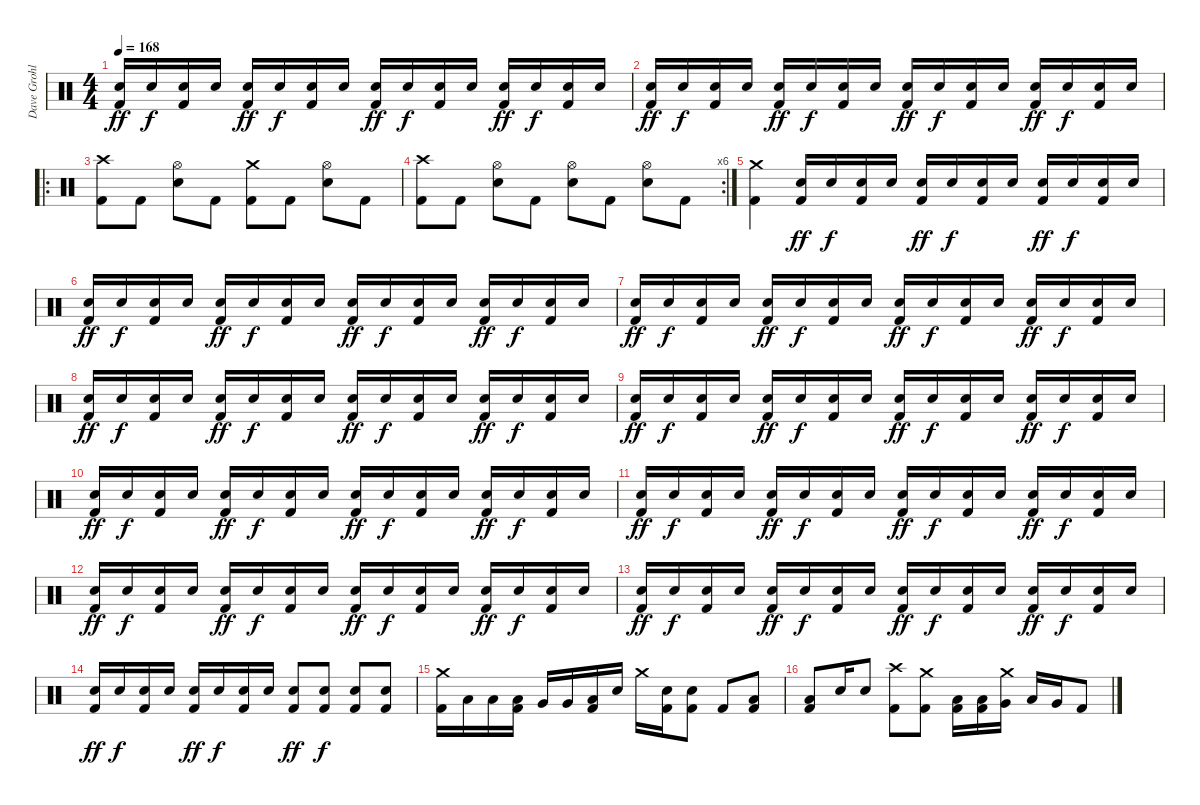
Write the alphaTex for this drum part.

\track ("Dave Grohl - Drums" "Dave Grohl") {instrument percussion}
\staff {score}
\articulation defaults
\ts (4 4)
\tempo 168
\clef neutral
\ks c
("Electric Snare (hit)" "Kick (hit) 2").16{dy ff volume 12} "Electric Snare (hit)".16{dy f} ("Electric Snare (hit)" "Kick (hit) 2").16 "Electric Snare (hit)".16 ("Electric Snare (hit)" "Kick (hit) 2").16{dy ff} "Electric Snare (hit)".16{dy f} ("Electric Snare (hit)" "Kick (hit) 2").16 "Electric Snare (hit)".16 ("Electric Snare (hit)" "Kick (hit) 2").16{dy ff} "Electric Snare (hit)".16{dy f} ("Electric Snare (hit)" "Kick (hit) 2").16 "Electric Snare (hit)".16 ("Electric Snare (hit)" "Kick (hit) 2").16{dy ff} "Electric Snare (hit)".16{dy f} ("Electric Snare (hit)" "Kick (hit) 2").16 "Electric Snare (hit)".16 |
("Electric Snare (hit)" "Kick (hit) 2").16{dy ff volume 12} "Electric Snare (hit)".16{dy f} ("Electric Snare (hit)" "Kick (hit) 2").16 "Electric Snare (hit)".16 ("Electric Snare (hit)" "Kick (hit) 2").16{dy ff} "Electric Snare (hit)".16{dy f} ("Electric Snare (hit)" "Kick (hit) 2").16 "Electric Snare (hit)".16 ("Electric Snare (hit)" "Kick (hit) 2").16{dy ff} "Electric Snare (hit)".16{dy f} ("Electric Snare (hit)" "Kick (hit) 2").16 "Electric Snare (hit)".16 ("Electric Snare (hit)" "Kick (hit) 2").16{dy ff} "Electric Snare (hit)".16{dy f} ("Electric Snare (hit)" "Kick (hit) 2").16 "Electric Snare (hit)".16 |
\ro
("Crash high (hit)" "Kick (hit) 2").8{volume 13} "Kick (hit) 2".8 ("Hi-Hat (open)" "Electric Snare (hit)").8 "Kick (hit) 2".8 ("Crash medium (hit)" "Kick (hit) 2").8 "Kick (hit) 2".8 ("Hi-Hat (open)" "Electric Snare (hit)").8 "Kick (hit) 2".8 |
\rc 6
("Crash high (hit)" "Kick (hit) 2").8{volume 13} "Kick (hit) 2".8 ("Hi-Hat (open)" "Electric Snare (hit)").8 "Kick (hit) 2".8 ("Hi-Hat (open)" "Electric Snare (hit)").8 "Kick (hit) 2".8 ("Hi-Hat (open)" "Electric Snare (hit)").8 "Kick (hit) 2".8 |
("Crash medium (hit)" "Kick (hit) 2").4{volume 12} ("Electric Snare (hit)" "Kick (hit) 2").16{dy ff volume 12} "Electric Snare (hit)".16{dy f} ("Electric Snare (hit)" "Kick (hit) 2").16 "Electric Snare (hit)".16 ("Electric Snare (hit)" "Kick (hit) 2").16{dy ff} "Electric Snare (hit)".16{dy f} ("Electric Snare (hit)" "Kick (hit) 2").16 "Electric Snare (hit)".16 ("Electric Snare (hit)" "Kick (hit) 2").16{dy ff} "Electric Snare (hit)".16{dy f} ("Electric Snare (hit)" "Kick (hit) 2").16 "Electric Snare (hit)".16 |
("Electric Snare (hit)" "Kick (hit) 2").16{dy ff volume 12} "Electric Snare (hit)".16{dy f} ("Electric Snare (hit)" "Kick (hit) 2").16 "Electric Snare (hit)".16 ("Electric Snare (hit)" "Kick (hit) 2").16{dy ff} "Electric Snare (hit)".16{dy f} ("Electric Snare (hit)" "Kick (hit) 2").16 "Electric Snare (hit)".16 ("Electric Snare (hit)" "Kick (hit) 2").16{dy ff} "Electric Snare (hit)".16{dy f} ("Electric Snare (hit)" "Kick (hit) 2").16 "Electric Snare (hit)".16 ("Electric Snare (hit)" "Kick (hit) 2").16{dy ff} "Electric Snare (hit)".16{dy f} ("Electric Snare (hit)" "Kick (hit) 2").16 "Electric Snare (hit)".16 |
("Electric Snare (hit)" "Kick (hit) 2").16{dy ff volume 12} "Electric Snare (hit)".16{dy f} ("Electric Snare (hit)" "Kick (hit) 2").16 "Electric Snare (hit)".16 ("Electric Snare (hit)" "Kick (hit) 2").16{dy ff} "Electric Snare (hit)".16{dy f} ("Electric Snare (hit)" "Kick (hit) 2").16 "Electric Snare (hit)".16 ("Electric Snare (hit)" "Kick (hit) 2").16{dy ff} "Electric Snare (hit)".16{dy f} ("Electric Snare (hit)" "Kick (hit) 2").16 "Electric Snare (hit)".16 ("Electric Snare (hit)" "Kick (hit) 2").16{dy ff} "Electric Snare (hit)".16{dy f} ("Electric Snare (hit)" "Kick (hit) 2").16 "Electric Snare (hit)".16 |
("Electric Snare (hit)" "Kick (hit) 2").16{dy ff volume 12} "Electric Snare (hit)".16{dy f} ("Electric Snare (hit)" "Kick (hit) 2").16 "Electric Snare (hit)".16 ("Electric Snare (hit)" "Kick (hit) 2").16{dy ff} "Electric Snare (hit)".16{dy f} ("Electric Snare (hit)" "Kick (hit) 2").16 "Electric Snare (hit)".16 ("Electric Snare (hit)" "Kick (hit) 2").16{dy ff} "Electric Snare (hit)".16{dy f} ("Electric Snare (hit)" "Kick (hit) 2").16 "Electric Snare (hit)".16 ("Electric Snare (hit)" "Kick (hit) 2").16{dy ff} "Electric Snare (hit)".16{dy f} ("Electric Snare (hit)" "Kick (hit) 2").16 "Electric Snare (hit)".16 |
("Electric Snare (hit)" "Kick (hit) 2").16{dy ff volume 12} "Electric Snare (hit)".16{dy f} ("Electric Snare (hit)" "Kick (hit) 2").16 "Electric Snare (hit)".16 ("Electric Snare (hit)" "Kick (hit) 2").16{dy ff} "Electric Snare (hit)".16{dy f} ("Electric Snare (hit)" "Kick (hit) 2").16 "Electric Snare (hit)".16 ("Electric Snare (hit)" "Kick (hit) 2").16{dy ff} "Electric Snare (hit)".16{dy f} ("Electric Snare (hit)" "Kick (hit) 2").16 "Electric Snare (hit)".16 ("Electric Snare (hit)" "Kick (hit) 2").16{dy ff} "Electric Snare (hit)".16{dy f} ("Electric Snare (hit)" "Kick (hit) 2").16 "Electric Snare (hit)".16 |
("Electric Snare (hit)" "Kick (hit) 2").16{dy ff volume 12} "Electric Snare (hit)".16{dy f} ("Electric Snare (hit)" "Kick (hit) 2").16 "Electric Snare (hit)".16 ("Electric Snare (hit)" "Kick (hit) 2").16{dy ff} "Electric Snare (hit)".16{dy f} ("Electric Snare (hit)" "Kick (hit) 2").16 "Electric Snare (hit)".16 ("Electric Snare (hit)" "Kick (hit) 2").16{dy ff} "Electric Snare (hit)".16{dy f} ("Electric Snare (hit)" "Kick (hit) 2").16 "Electric Snare (hit)".16 ("Electric Snare (hit)" "Kick (hit) 2").16{dy ff} "Electric Snare (hit)".16{dy f} ("Electric Snare (hit)" "Kick (hit) 2").16 "Electric Snare (hit)".16 |
("Electric Snare (hit)" "Kick (hit) 2").16{dy ff volume 12} "Electric Snare (hit)".16{dy f} ("Electric Snare (hit)" "Kick (hit) 2").16 "Electric Snare (hit)".16 ("Electric Snare (hit)" "Kick (hit) 2").16{dy ff} "Electric Snare (hit)".16{dy f} ("Electric Snare (hit)" "Kick (hit) 2").16 "Electric Snare (hit)".16 ("Electric Snare (hit)" "Kick (hit) 2").16{dy ff} "Electric Snare (hit)".16{dy f} ("Electric Snare (hit)" "Kick (hit) 2").16 "Electric Snare (hit)".16 ("Electric Snare (hit)" "Kick (hit) 2").16{dy ff} "Electric Snare (hit)".16{dy f} ("Electric Snare (hit)" "Kick (hit) 2").16 "Electric Snare (hit)".16 |
("Electric Snare (hit)" "Kick (hit) 2").16{dy ff volume 12} "Electric Snare (hit)".16{dy f} ("Electric Snare (hit)" "Kick (hit) 2").16 "Electric Snare (hit)".16 ("Electric Snare (hit)" "Kick (hit) 2").16{dy ff} "Electric Snare (hit)".16{dy f} ("Electric Snare (hit)" "Kick (hit) 2").16 "Electric Snare (hit)".16 ("Electric Snare (hit)" "Kick (hit) 2").16{dy ff} "Electric Snare (hit)".16{dy f} ("Electric Snare (hit)" "Kick (hit) 2").16 "Electric Snare (hit)".16 ("Electric Snare (hit)" "Kick (hit) 2").16{dy ff} "Electric Snare (hit)".16{dy f} ("Electric Snare (hit)" "Kick (hit) 2").16 "Electric Snare (hit)".16 |
("Electric Snare (hit)" "Kick (hit) 2").16{dy ff volume 12} "Electric Snare (hit)".16{dy f} ("Electric Snare (hit)" "Kick (hit) 2").16 "Electric Snare (hit)".16 ("Electric Snare (hit)" "Kick (hit) 2").16{dy ff} "Electric Snare (hit)".16{dy f} ("Electric Snare (hit)" "Kick (hit) 2").16 "Electric Snare (hit)".16 ("Electric Snare (hit)" "Kick (hit) 2").16{dy ff} "Electric Snare (hit)".16{dy f} ("Electric Snare (hit)" "Kick (hit) 2").16 "Electric Snare (hit)".16 ("Electric Snare (hit)" "Kick (hit) 2").16{dy ff} "Electric Snare (hit)".16{dy f} ("Electric Snare (hit)" "Kick (hit) 2").16 "Electric Snare (hit)".16 |
("Electric Snare (hit)" "Kick (hit) 2").16{dy ff volume 12} "Electric Snare (hit)".16{dy f} ("Electric Snare (hit)" "Kick (hit) 2").16 "Electric Snare (hit)".16 ("Electric Snare (hit)" "Kick (hit) 2").16{dy ff} "Electric Snare (hit)".16{dy f} ("Electric Snare (hit)" "Kick (hit) 2").16 "Electric Snare (hit)".16 ("Electric Snare (hit)" "Kick (hit) 2").8{dy ff} ("Electric Snare (hit)" "Kick (hit) 2").8{dy f} ("Electric Snare (hit)" "Kick (hit) 2").8 ("Electric Snare (hit)" "Kick (hit) 2").8 |
("Crash medium (hit)" "Kick (hit) 2").16 "Low Floor Tom (hit)".16 "Low Tom (hit)".16 ("Low Tom (hit)" "Kick (hit) 2").16 "Very Low Tom (hit)".16 "Very Low Tom (hit)".16 ("Low Floor Tom (hit)" "Kick (hit) 2").16 "Electric Snare (hit)".16 "Crash medium (hit)".16 ("Electric Snare (hit)" "Kick (hit) 2").16 ("Electric Snare (hit)" "Kick (hit) 2").8 "Kick (hit) 2".8 ("Low Floor Tom (hit)" "Kick (hit) 2").8 |
("Low Floor Tom (hit)" "Kick (hit) 2").8 "Electric Snare (hit)".16 "Electric Snare (hit)".8 ("Crash high (hit)" "Kick (hit) 2").8 ("Crash medium (hit)" "Kick (hit) 2").8 ("Low Tom (hit)" "Kick (hit) 2").16 ("Low Floor Tom (hit)" "Kick (hit) 2").16 ("Crash medium (hit)" "Very Low Tom (hit)").16 "Low Floor Tom (hit)".16 "Very Low Tom (hit)".16 "Kick (hit) 2".8
